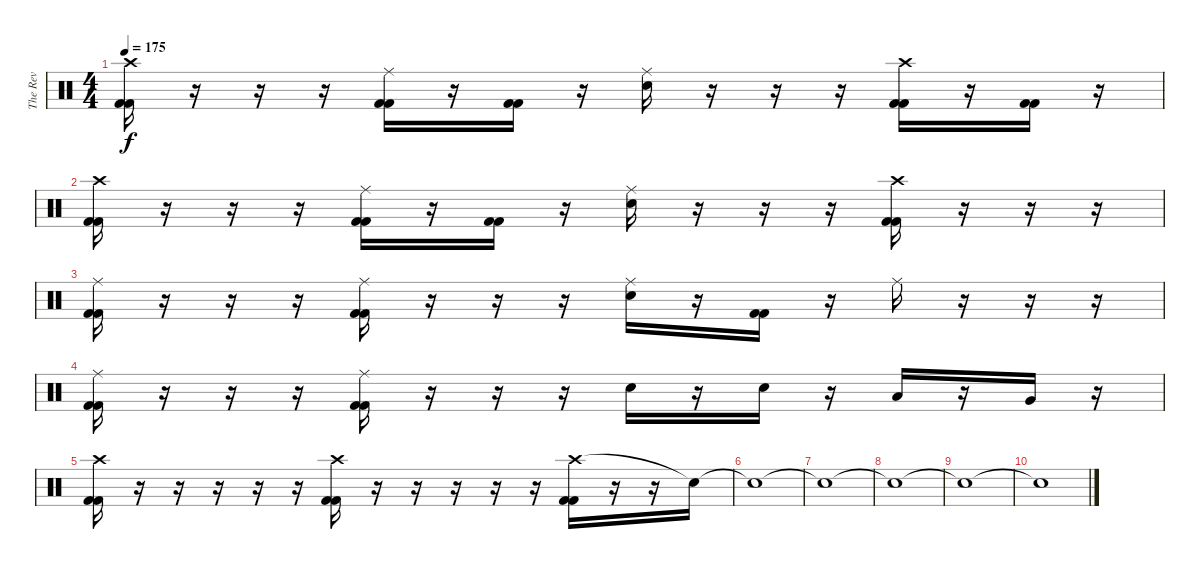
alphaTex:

\track ("The Rev" "The Rev") {instrument percussion}
\staff {score}
\articulation defaults
\ts (4 4)
\tempo 175
\clef neutral
\ks c
("Crash high (hit)" "Kick (hit) 2" "Kick (hit) 2").16{dy f} r.16 r.16 r.16 ("Ride (middle)" "Kick (hit) 2" "Kick (hit) 2").16 r.16 ("Kick (hit) 2" "Kick (hit) 2").16 r.16 ("Ride (middle)" "Electric Snare (hit)").16 r.16 r.16 r.16 ("Crash high (hit)" "Kick (hit) 2" "Kick (hit) 2").16 r.16 ("Kick (hit) 2" "Kick (hit) 2").16 r.16 |
("Crash high (hit)" "Kick (hit) 2" "Kick (hit) 2").16 r.16 r.16 r.16 ("Ride (middle)" "Kick (hit) 2" "Kick (hit) 2").16 r.16 ("Kick (hit) 2" "Kick (hit) 2").16 r.16 ("Ride (middle)" "Electric Snare (hit)").16 r.16 r.16 r.16 ("Crash high (hit)" "Kick (hit) 2" "Kick (hit) 2").16 r.16 r.16 r.16 |
("Ride (middle)" "Kick (hit) 2" "Kick (hit) 2").16 r.16 r.16 r.16 ("Ride (middle)" "Kick (hit) 2" "Kick (hit) 2").16 r.16 r.16 r.16 ("Ride (middle)" "Electric Snare (hit)").16 r.16 ("Kick (hit) 2" "Kick (hit) 2").16 r.16 "Ride (middle)".16 r.16 r.16 r.16 |
("Ride (middle)" "Kick (hit) 2" "Kick (hit) 2").16 r.16 r.16 r.16 ("Ride (middle)" "Kick (hit) 2" "Kick (hit) 2").16 r.16 r.16 r.16 "Electric Snare (hit)".16 r.16 "Electric Snare (hit)".16 r.16 "Low Tom (hit)".16 r.16 "Very Low Tom (hit)".16 r.16 |
("Crash high (hit)" "Kick (hit) 2" "Kick (hit) 2").16 r.16 r.16 r.16 r.16 r.16 ("Crash high (hit)" "Kick (hit) 2" "Kick (hit) 2").16 r.16 r.16 r.16 r.16 r.16 ("Crash high (hit)" "Kick (hit) 2" "Kick (hit) 2").16 r.16 r.16 "Snare (hit)"{t}.16 |
"Snare (hit)"{t}.1 |
"Snare (hit)"{t}.1 |
"Snare (hit)"{t}.1 |
"Snare (hit)"{t}.1 |
"Snare (hit)"{t}.1
